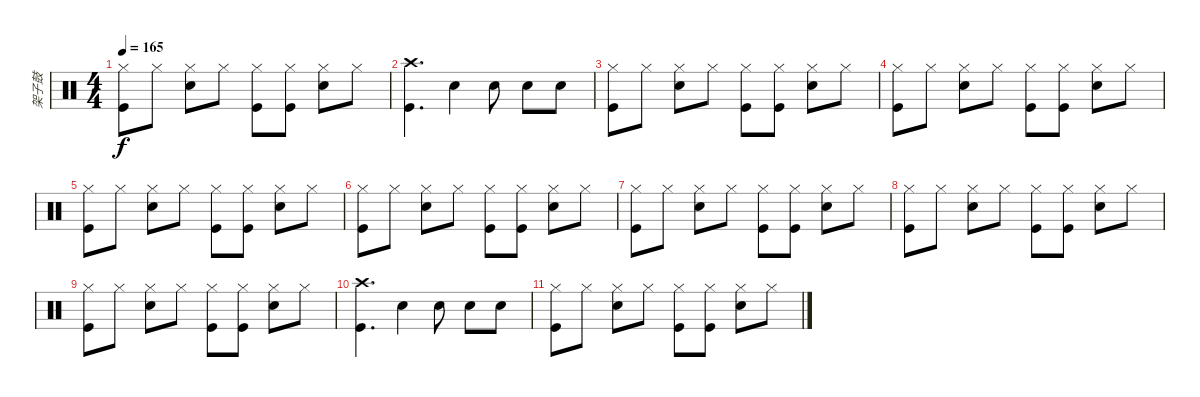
\track ("架子鼓" "架子鼓") {instrument percussion}
\staff {score}
\articulation defaults
\ts (4 4)
\tempo 165
\clef neutral
\ks c
("Hi-Hat (closed)" "Kick (hit)").8{dy f} "Hi-Hat (closed)".8 ("Hi-Hat (closed)" "Snare (hit) 2").8 "Hi-Hat (closed)".8 ("Hi-Hat (closed)" "Kick (hit)").8 ("Hi-Hat (closed)" "Kick (hit)").8 ("Hi-Hat (closed)" "Snare (hit) 2").8 "Hi-Hat (closed)".8 |
("Crash high (hit)" "Kick (hit)").4{d} "Snare (hit) 2".4 "Snare (hit) 2".8 "Snare (hit) 2".8 "Snare (hit) 2".8 |
("Hi-Hat (closed)" "Kick (hit)").8 "Hi-Hat (closed)".8 ("Hi-Hat (closed)" "Snare (hit) 2").8 "Hi-Hat (closed)".8 ("Hi-Hat (closed)" "Kick (hit)").8 ("Hi-Hat (closed)" "Kick (hit)").8 ("Hi-Hat (closed)" "Snare (hit) 2").8 "Hi-Hat (closed)".8 |
("Hi-Hat (closed)" "Kick (hit)").8 "Hi-Hat (closed)".8 ("Hi-Hat (closed)" "Snare (hit) 2").8 "Hi-Hat (closed)".8 ("Hi-Hat (closed)" "Kick (hit)").8 ("Hi-Hat (closed)" "Kick (hit)").8 ("Hi-Hat (closed)" "Snare (hit) 2").8 "Hi-Hat (closed)".8 |
("Hi-Hat (closed)" "Kick (hit)").8 "Hi-Hat (closed)".8 ("Hi-Hat (closed)" "Snare (hit) 2").8 "Hi-Hat (closed)".8 ("Hi-Hat (closed)" "Kick (hit)").8 ("Hi-Hat (closed)" "Kick (hit)").8 ("Hi-Hat (closed)" "Snare (hit) 2").8 "Hi-Hat (closed)".8 |
("Hi-Hat (closed)" "Kick (hit)").8 "Hi-Hat (closed)".8 ("Hi-Hat (closed)" "Snare (hit) 2").8 "Hi-Hat (closed)".8 ("Hi-Hat (closed)" "Kick (hit)").8 ("Hi-Hat (closed)" "Kick (hit)").8 ("Hi-Hat (closed)" "Snare (hit) 2").8 "Hi-Hat (closed)".8 |
("Hi-Hat (closed)" "Kick (hit)").8 "Hi-Hat (closed)".8 ("Hi-Hat (closed)" "Snare (hit) 2").8 "Hi-Hat (closed)".8 ("Hi-Hat (closed)" "Kick (hit)").8 ("Hi-Hat (closed)" "Kick (hit)").8 ("Hi-Hat (closed)" "Snare (hit) 2").8 "Hi-Hat (closed)".8 |
("Hi-Hat (closed)" "Kick (hit)").8 "Hi-Hat (closed)".8 ("Hi-Hat (closed)" "Snare (hit) 2").8 "Hi-Hat (closed)".8 ("Hi-Hat (closed)" "Kick (hit)").8 ("Hi-Hat (closed)" "Kick (hit)").8 ("Hi-Hat (closed)" "Snare (hit) 2").8 "Hi-Hat (closed)".8 |
("Hi-Hat (closed)" "Kick (hit)").8 "Hi-Hat (closed)".8 ("Hi-Hat (closed)" "Snare (hit) 2").8 "Hi-Hat (closed)".8 ("Hi-Hat (closed)" "Kick (hit)").8 ("Hi-Hat (closed)" "Kick (hit)").8 ("Hi-Hat (closed)" "Snare (hit) 2").8 "Hi-Hat (closed)".8 |
("Crash high (hit)" "Kick (hit)").4{d} "Snare (hit) 2".4 "Snare (hit) 2".8 "Snare (hit) 2".8 "Snare (hit) 2".8 |
("Hi-Hat (closed)" "Kick (hit)").8 "Hi-Hat (closed)".8 ("Hi-Hat (closed)" "Snare (hit) 2").8 "Hi-Hat (closed)".8 ("Hi-Hat (closed)" "Kick (hit)").8 ("Hi-Hat (closed)" "Kick (hit)").8 ("Hi-Hat (closed)" "Snare (hit) 2").8 "Hi-Hat (closed)".8
